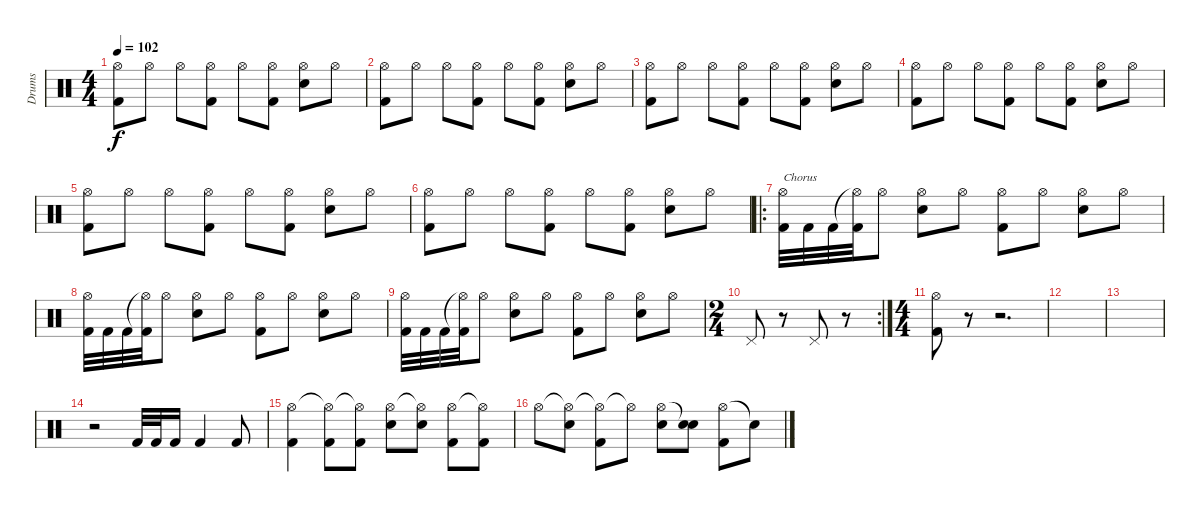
\track ("Drums" "Drums") {instrument percussion}
\staff {score}
\articulation defaults
\ts (4 4)
\tempo 102
\clef neutral
\ks c
("Hi-Hat (open)" "Kick (hit) 2").8{dy f} "Hi-Hat (open)".8 "Hi-Hat (open)".8 ("Hi-Hat (open)" "Kick (hit) 2").8 "Hi-Hat (open)".8 ("Hi-Hat (open)" "Kick (hit) 2").8 ("Hi-Hat (open)" "Snare (hit) 2").8 "Hi-Hat (open)".8 |
("Hi-Hat (open)" "Kick (hit) 2").8 "Hi-Hat (open)".8 "Hi-Hat (open)".8 ("Hi-Hat (open)" "Kick (hit) 2").8 "Hi-Hat (open)".8 ("Hi-Hat (open)" "Kick (hit) 2").8 ("Hi-Hat (open)" "Snare (hit) 2").8 "Hi-Hat (open)".8 |
("Hi-Hat (open)" "Kick (hit) 2").8 "Hi-Hat (open)".8 "Hi-Hat (open)".8 ("Hi-Hat (open)" "Kick (hit) 2").8 "Hi-Hat (open)".8 ("Hi-Hat (open)" "Kick (hit) 2").8 ("Hi-Hat (open)" "Snare (hit) 2").8 "Hi-Hat (open)".8 |
("Hi-Hat (open)" "Kick (hit) 2").8 "Hi-Hat (open)".8 "Hi-Hat (open)".8 ("Hi-Hat (open)" "Kick (hit) 2").8 "Hi-Hat (open)".8 ("Hi-Hat (open)" "Kick (hit) 2").8 ("Hi-Hat (open)" "Snare (hit) 2").8 "Hi-Hat (open)".8 |
("Hi-Hat (open)" "Kick (hit) 2").8 "Hi-Hat (open)".8 "Hi-Hat (open)".8 ("Hi-Hat (open)" "Kick (hit) 2").8 "Hi-Hat (open)".8 ("Hi-Hat (open)" "Kick (hit) 2").8 ("Hi-Hat (open)" "Snare (hit) 2").8 "Hi-Hat (open)".8 |
("Hi-Hat (open)" "Kick (hit) 2").8 "Hi-Hat (open)".8 "Hi-Hat (open)".8 ("Hi-Hat (open)" "Kick (hit) 2").8 "Hi-Hat (open)".8 ("Hi-Hat (open)" "Kick (hit) 2").8 ("Hi-Hat (open)" "Snare (hit) 2").8 "Hi-Hat (open)".8 |
\ro
("Hi-Hat (open)" "Kick (hit) 2").32{txt "Chorus"} "Kick (hit) 2".32 "Kick (hit) 2".32 ("Hi-Hat (open)"{t} "Kick (hit) 2").32 "Hi-Hat (open)".8 ("Hi-Hat (open)" "Snare (hit) 2").8 "Hi-Hat (open)".8 ("Hi-Hat (open)" "Kick (hit) 2").8 "Hi-Hat (open)".8 ("Hi-Hat (open)" "Snare (hit) 2").8 "Hi-Hat (open)".8 |
("Hi-Hat (open)" "Kick (hit) 2").32 "Kick (hit) 2".32 "Kick (hit) 2".32 ("Hi-Hat (open)"{t} "Kick (hit) 2").32 "Hi-Hat (open)".8 ("Hi-Hat (open)" "Snare (hit) 2").8 "Hi-Hat (open)".8 ("Hi-Hat (open)" "Kick (hit) 2").8 "Hi-Hat (open)".8 ("Hi-Hat (open)" "Snare (hit) 2").8 "Hi-Hat (open)".8 |
("Hi-Hat (open)" "Kick (hit) 2").32 "Kick (hit) 2".32 "Kick (hit) 2".32 ("Hi-Hat (open)"{t} "Kick (hit) 2").32 "Hi-Hat (open)".8 ("Hi-Hat (open)" "Snare (hit) 2").8 "Hi-Hat (open)".8 ("Hi-Hat (open)" "Kick (hit) 2").8 "Hi-Hat (open)".8 ("Hi-Hat (open)" "Snare (hit) 2").8 "Hi-Hat (open)".8 |
\rc 2
\ts (2 4)
"Pedal Hi-Hat (hit)".8 r.8 "Pedal Hi-Hat (hit)".8 r.8 |
\ts (4 4)
("Kick (hit) 2" "Hi-Hat (open)").8 r.8 r.2{d} |
|
|
r.2 "Kick (hit) 2".32 "Kick (hit) 2".32 "Kick (hit) 2".16 "Kick (hit) 2".4 "Kick (hit) 2".8 |
("Hi-Hat (open)" "Kick (hit) 2").4 ("Hi-Hat (open)"{t} "Kick (hit) 2").8 ("Hi-Hat (open)"{t} "Kick (hit) 2").8 ("Hi-Hat (open)" "Snare (hit) 2").8 ("Hi-Hat (open)"{t} "Snare (hit) 2").8 ("Hi-Hat (open)" "Kick (hit) 2").8 ("Hi-Hat (open)"{t} "Kick (hit) 2").8 |
"Hi-Hat (open)".8 ("Hi-Hat (open)"{t} "Snare (hit) 2").8 ("Hi-Hat (open)"{t} "Kick (hit) 2").8 "Hi-Hat (open)"{t}.8 ("Hi-Hat (open)" "Snare (hit) 2").8 ("Snare (hit)"{t} "Snare (hit) 2").8 ("Hi-Hat (open)" "Kick (hit) 2").8 "Snare (hit)"{t}.8
